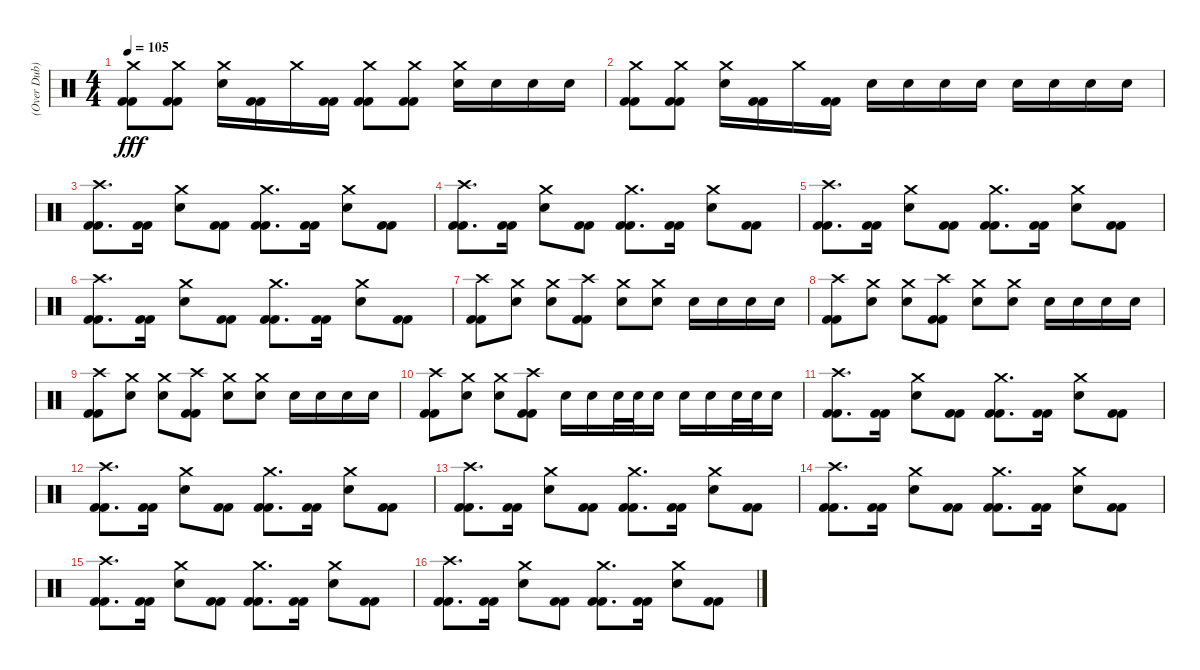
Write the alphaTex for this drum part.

\track ("(Over Dub)" "(Over Dub)") {instrument percussion}
\staff {score}
\articulation defaults
\ts (4 4)
\tempo 105
\clef neutral
\ks c
("Crash medium (hit)" "Kick (hit) 2" "Kick (hit) 2").8{dy fff} ("Crash medium (hit)" "Kick (hit) 2" "Kick (hit) 2").8 ("Crash medium (hit)" "Electric Snare (hit)").16 ("Kick (hit) 2" "Kick (hit) 2").16 "Crash medium (hit)".16 ("Kick (hit) 2" "Kick (hit) 2").16 ("Crash medium (hit)" "Kick (hit) 2" "Kick (hit) 2").8 ("Crash medium (hit)" "Kick (hit) 2" "Kick (hit) 2").8 ("Crash medium (hit)" "Electric Snare (hit)").16 "Electric Snare (hit)".16 "Electric Snare (hit)".16 "Electric Snare (hit)".16 |
("Crash medium (hit)" "Kick (hit) 2" "Kick (hit) 2").8 ("Crash medium (hit)" "Kick (hit) 2" "Kick (hit) 2").8 ("Crash medium (hit)" "Electric Snare (hit)").16 ("Kick (hit) 2" "Kick (hit) 2").16 "Crash medium (hit)".16 ("Kick (hit) 2" "Kick (hit) 2").16 "Electric Snare (hit)".16 "Electric Snare (hit)".16 "Electric Snare (hit)".16 "Electric Snare (hit)".16 "Electric Snare (hit)".16 "Electric Snare (hit)".16 "Electric Snare (hit)".16 "Electric Snare (hit)".16 |
("Crash high (hit)" "Kick (hit) 2" "Kick (hit) 2").8{d} ("Kick (hit) 2" "Kick (hit) 2").16 ("Crash medium (hit)" "Electric Snare (hit)").8 ("Kick (hit) 2" "Kick (hit) 2").8 ("Crash medium (hit)" "Kick (hit) 2" "Kick (hit) 2").8{d} ("Kick (hit) 2" "Kick (hit) 2").16 ("Crash medium (hit)" "Electric Snare (hit)").8 ("Kick (hit) 2" "Kick (hit) 2").8 |
("Crash high (hit)" "Kick (hit) 2" "Kick (hit) 2").8{d} ("Kick (hit) 2" "Kick (hit) 2").16 ("Crash medium (hit)" "Electric Snare (hit)").8 ("Kick (hit) 2" "Kick (hit) 2").8 ("Crash medium (hit)" "Kick (hit) 2" "Kick (hit) 2").8{d} ("Kick (hit) 2" "Kick (hit) 2").16 ("Crash medium (hit)" "Electric Snare (hit)").8 ("Kick (hit) 2" "Kick (hit) 2").8 |
("Crash high (hit)" "Kick (hit) 2" "Kick (hit) 2").8{d} ("Kick (hit) 2" "Kick (hit) 2").16 ("Crash medium (hit)" "Electric Snare (hit)").8 ("Kick (hit) 2" "Kick (hit) 2").8 ("Crash medium (hit)" "Kick (hit) 2" "Kick (hit) 2").8{d} ("Kick (hit) 2" "Kick (hit) 2").16 ("Crash medium (hit)" "Electric Snare (hit)").8 ("Kick (hit) 2" "Kick (hit) 2").8 |
("Crash high (hit)" "Kick (hit) 2" "Kick (hit) 2").8{d} ("Kick (hit) 2" "Kick (hit) 2").16 ("Crash medium (hit)" "Electric Snare (hit)").8 ("Kick (hit) 2" "Kick (hit) 2").8 ("Crash medium (hit)" "Kick (hit) 2" "Kick (hit) 2").8{d} ("Kick (hit) 2" "Kick (hit) 2").16 ("Crash medium (hit)" "Electric Snare (hit)").8 ("Kick (hit) 2" "Kick (hit) 2").8 |
("Crash high (hit)" "Kick (hit) 2" "Kick (hit) 2").8 ("Crash medium (hit)" "Electric Snare (hit)").8 ("Crash medium (hit)" "Electric Snare (hit)").8 ("Crash high (hit)" "Kick (hit) 2" "Kick (hit) 2").8 ("Crash medium (hit)" "Electric Snare (hit)").8 ("Crash medium (hit)" "Electric Snare (hit)").8 "Electric Snare (hit)".16 "Electric Snare (hit)".16 "Electric Snare (hit)".16 "Electric Snare (hit)".16 |
("Crash high (hit)" "Kick (hit) 2" "Kick (hit) 2").8 ("Crash medium (hit)" "Electric Snare (hit)").8 ("Crash medium (hit)" "Electric Snare (hit)").8 ("Crash high (hit)" "Kick (hit) 2" "Kick (hit) 2").8 ("Crash medium (hit)" "Electric Snare (hit)").8 ("Crash medium (hit)" "Electric Snare (hit)").8 "Electric Snare (hit)".16 "Electric Snare (hit)".16 "Electric Snare (hit)".16 "Electric Snare (hit)".16 |
("Crash high (hit)" "Kick (hit) 2" "Kick (hit) 2").8 ("Crash medium (hit)" "Electric Snare (hit)").8 ("Crash medium (hit)" "Electric Snare (hit)").8 ("Crash high (hit)" "Kick (hit) 2" "Kick (hit) 2").8 ("Crash medium (hit)" "Electric Snare (hit)").8 ("Crash medium (hit)" "Electric Snare (hit)").8 "Electric Snare (hit)".16 "Electric Snare (hit)".16 "Electric Snare (hit)".16 "Electric Snare (hit)".16 |
("Crash high (hit)" "Kick (hit) 2" "Kick (hit) 2").8 ("Crash medium (hit)" "Electric Snare (hit)").8 ("Crash medium (hit)" "Electric Snare (hit)").8 ("Crash high (hit)" "Kick (hit) 2" "Kick (hit) 2").8 "Electric Snare (hit)".16 "Electric Snare (hit)".16 "Electric Snare (hit)".32 "Electric Snare (hit)".32 "Electric Snare (hit)".16 "Electric Snare (hit)".16 "Electric Snare (hit)".16 "Electric Snare (hit)".32 "Electric Snare (hit)".32 "Electric Snare (hit)".16 |
("Crash high (hit)" "Kick (hit) 2" "Kick (hit) 2").8{d} ("Kick (hit) 2" "Kick (hit) 2").16 ("Crash medium (hit)" "Electric Snare (hit)").8 ("Kick (hit) 2" "Kick (hit) 2").8 ("Crash medium (hit)" "Kick (hit) 2" "Kick (hit) 2").8{d} ("Kick (hit) 2" "Kick (hit) 2").16 ("Crash medium (hit)" "Electric Snare (hit)").8 ("Kick (hit) 2" "Kick (hit) 2").8 |
("Crash high (hit)" "Kick (hit) 2" "Kick (hit) 2").8{d} ("Kick (hit) 2" "Kick (hit) 2").16 ("Crash medium (hit)" "Electric Snare (hit)").8 ("Kick (hit) 2" "Kick (hit) 2").8 ("Crash medium (hit)" "Kick (hit) 2" "Kick (hit) 2").8{d} ("Kick (hit) 2" "Kick (hit) 2").16 ("Crash medium (hit)" "Electric Snare (hit)").8 ("Kick (hit) 2" "Kick (hit) 2").8 |
("Crash high (hit)" "Kick (hit) 2" "Kick (hit) 2").8{d} ("Kick (hit) 2" "Kick (hit) 2").16 ("Crash medium (hit)" "Electric Snare (hit)").8 ("Kick (hit) 2" "Kick (hit) 2").8 ("Crash medium (hit)" "Kick (hit) 2" "Kick (hit) 2").8{d} ("Kick (hit) 2" "Kick (hit) 2").16 ("Crash medium (hit)" "Electric Snare (hit)").8 ("Kick (hit) 2" "Kick (hit) 2").8 |
("Crash high (hit)" "Kick (hit) 2" "Kick (hit) 2").8{d} ("Kick (hit) 2" "Kick (hit) 2").16 ("Crash medium (hit)" "Electric Snare (hit)").8 ("Kick (hit) 2" "Kick (hit) 2").8 ("Crash medium (hit)" "Kick (hit) 2" "Kick (hit) 2").8{d} ("Kick (hit) 2" "Kick (hit) 2").16 ("Crash medium (hit)" "Electric Snare (hit)").8 ("Kick (hit) 2" "Kick (hit) 2").8 |
("Crash high (hit)" "Kick (hit) 2" "Kick (hit) 2").8{d} ("Kick (hit) 2" "Kick (hit) 2").16 ("Crash medium (hit)" "Electric Snare (hit)").8 ("Kick (hit) 2" "Kick (hit) 2").8 ("Crash medium (hit)" "Kick (hit) 2" "Kick (hit) 2").8{d} ("Kick (hit) 2" "Kick (hit) 2").16 ("Crash medium (hit)" "Electric Snare (hit)").8 ("Kick (hit) 2" "Kick (hit) 2").8 |
("Crash high (hit)" "Kick (hit) 2" "Kick (hit) 2").8{d} ("Kick (hit) 2" "Kick (hit) 2").16 ("Crash medium (hit)" "Electric Snare (hit)").8 ("Kick (hit) 2" "Kick (hit) 2").8 ("Crash medium (hit)" "Kick (hit) 2" "Kick (hit) 2").8{d} ("Kick (hit) 2" "Kick (hit) 2").16 ("Crash medium (hit)" "Electric Snare (hit)").8 ("Kick (hit) 2" "Kick (hit) 2").8
